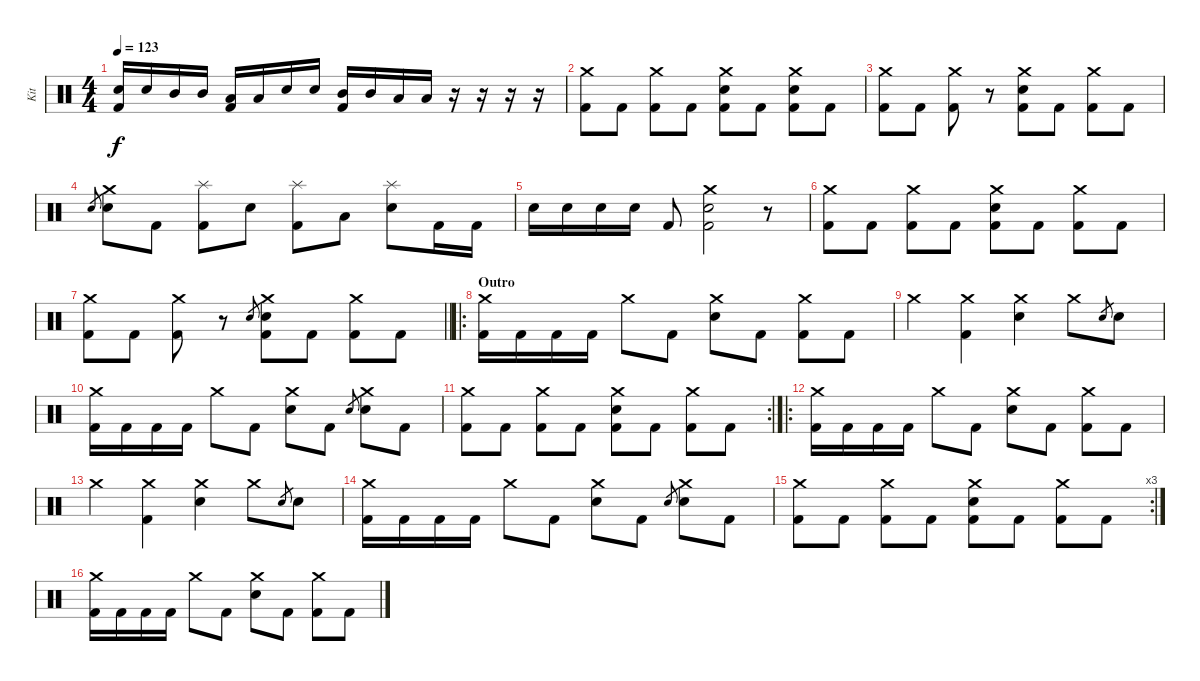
\track ("Kit" "Kit") {instrument percussion}
\staff {score}
\articulation defaults
\ts (4 4)
\tempo 123
\clef neutral
\ks c
("Electric Snare (hit)" "Kick (hit) 2").16{dy f} "Electric Snare (hit)".16 "Mid Tom (hit)".16 "Mid Tom (hit)".16 ("Low Tom (hit)" "Kick (hit) 2").16 "Low Tom (hit)".16 "Electric Snare (hit)".16 "Electric Snare (hit)".16 ("Mid Tom (hit)" "Kick (hit) 2").16 "Mid Tom (hit)".16 "Low Tom (hit)".16 "Low Tom (hit)".16 r.16 r.16 r.16 r.16 |
("Crash medium (hit)" "Kick (hit) 2").8 "Kick (hit) 2".8 ("Crash medium (hit)" "Kick (hit) 2").8 "Kick (hit) 2".8 ("Crash medium (hit)" "Electric Snare (hit)" "Kick (hit) 2").8 "Kick (hit) 2".8 ("Crash medium (hit)" "Electric Snare (hit)" "Kick (hit) 2").8 "Kick (hit) 2".8 |
("Crash medium (hit)" "Kick (hit) 2").8 "Kick (hit) 2".8 ("Crash medium (hit)" "Kick (hit) 2").8 r.8 ("Crash medium (hit)" "Electric Snare (hit)" "Kick (hit) 2").8 "Kick (hit) 2".8 ("Crash medium (hit)" "Kick (hit) 2").8 "Kick (hit) 2".8 |
"Electric Snare (hit)".8{gr} ("Crash medium (hit)" "Electric Snare (hit)").8 "Kick (hit) 2".8 ("Splash (hit)" "Kick (hit) 2").8 "Electric Snare (hit)".8 ("Splash (hit)" "Kick (hit) 2").8 "Low Tom (hit)".8 ("Splash (hit)" "Electric Snare (hit)").8 "Kick (hit) 2".16 "Kick (hit) 2".16 |
"Electric Snare (hit)".16 "Electric Snare (hit)".16 "Electric Snare (hit)".16 "Electric Snare (hit)".16 "Kick (hit) 2".8 ("Crash medium (hit)" "Electric Snare (hit)" "Kick (hit) 2").2 r.8 |
("Crash medium (hit)" "Kick (hit) 2").8 "Kick (hit) 2".8 ("Crash medium (hit)" "Kick (hit) 2").8 "Kick (hit) 2".8 ("Crash medium (hit)" "Electric Snare (hit)" "Kick (hit) 2").8 "Kick (hit) 2".8 ("Crash medium (hit)" "Kick (hit) 2").8 "Kick (hit) 2".8 |
\barLineRight lightlight
("Crash medium (hit)" "Kick (hit) 2").8 "Kick (hit) 2".8 ("Crash medium (hit)" "Kick (hit) 2").8 r.8 "Electric Snare (hit)".8{gr} ("Crash medium (hit)" "Electric Snare (hit)" "Kick (hit) 2").8 "Kick (hit) 2".8 ("Crash medium (hit)" "Kick (hit) 2").8 "Kick (hit) 2".8 |
\ro
\section ("" "Outro")
("Crash medium (hit)" "Kick (hit) 2").16 "Kick (hit) 2".16 "Kick (hit) 2".16 "Kick (hit) 2".16 "Crash medium (hit)".8 "Kick (hit) 2".8 ("Crash medium (hit)" "Electric Snare (hit)").8 "Kick (hit) 2".8 ("Crash medium (hit)" "Kick (hit) 2").8 "Kick (hit) 2".8 |
"Crash medium (hit)".4 ("Crash medium (hit)" "Kick (hit) 2").4 ("Crash medium (hit)" "Electric Snare (hit)").4 "Crash medium (hit)".8 "Electric Snare (hit)".8{gr} "Electric Snare (hit)".8 |
("Crash medium (hit)" "Kick (hit) 2").16 "Kick (hit) 2".16 "Kick (hit) 2".16 "Kick (hit) 2".16 "Crash medium (hit)".8 "Kick (hit) 2".8 ("Crash medium (hit)" "Electric Snare (hit)").8 "Kick (hit) 2".8 "Electric Snare (hit)".8{gr} ("Crash medium (hit)" "Electric Snare (hit)").8 "Kick (hit) 2".8 |
\rc 2
("Crash medium (hit)" "Kick (hit) 2").8 "Kick (hit) 2".8 ("Crash medium (hit)" "Kick (hit) 2").8 "Kick (hit) 2".8 ("Crash medium (hit)" "Electric Snare (hit)" "Kick (hit) 2").8 "Kick (hit) 2".8 ("Crash medium (hit)" "Kick (hit) 2").8 "Kick (hit) 2".8 |
\ro
("Crash medium (hit)" "Kick (hit) 2").16 "Kick (hit) 2".16 "Kick (hit) 2".16 "Kick (hit) 2".16 "Crash medium (hit)".8 "Kick (hit) 2".8 ("Crash medium (hit)" "Electric Snare (hit)").8 "Kick (hit) 2".8 ("Crash medium (hit)" "Kick (hit) 2").8 "Kick (hit) 2".8 |
"Crash medium (hit)".4 ("Crash medium (hit)" "Kick (hit) 2").4 ("Crash medium (hit)" "Electric Snare (hit)").4 "Crash medium (hit)".8 "Electric Snare (hit)".8{gr} "Electric Snare (hit)".8 |
("Crash medium (hit)" "Kick (hit) 2").16 "Kick (hit) 2".16 "Kick (hit) 2".16 "Kick (hit) 2".16 "Crash medium (hit)".8 "Kick (hit) 2".8 ("Crash medium (hit)" "Electric Snare (hit)").8 "Kick (hit) 2".8 "Electric Snare (hit)".8{gr} ("Crash medium (hit)" "Electric Snare (hit)").8 "Kick (hit) 2".8 |
\rc 3
("Crash medium (hit)" "Kick (hit) 2").8 "Kick (hit) 2".8 ("Crash medium (hit)" "Kick (hit) 2").8 "Kick (hit) 2".8 ("Crash medium (hit)" "Electric Snare (hit)" "Kick (hit) 2").8 "Kick (hit) 2".8 ("Crash medium (hit)" "Kick (hit) 2").8 "Kick (hit) 2".8 |
("Crash medium (hit)" "Kick (hit) 2").16 "Kick (hit) 2".16 "Kick (hit) 2".16 "Kick (hit) 2".16 "Crash medium (hit)".8 "Kick (hit) 2".8 ("Crash medium (hit)" "Electric Snare (hit)").8 "Kick (hit) 2".8 ("Crash medium (hit)" "Kick (hit) 2").8 "Kick (hit) 2".8
